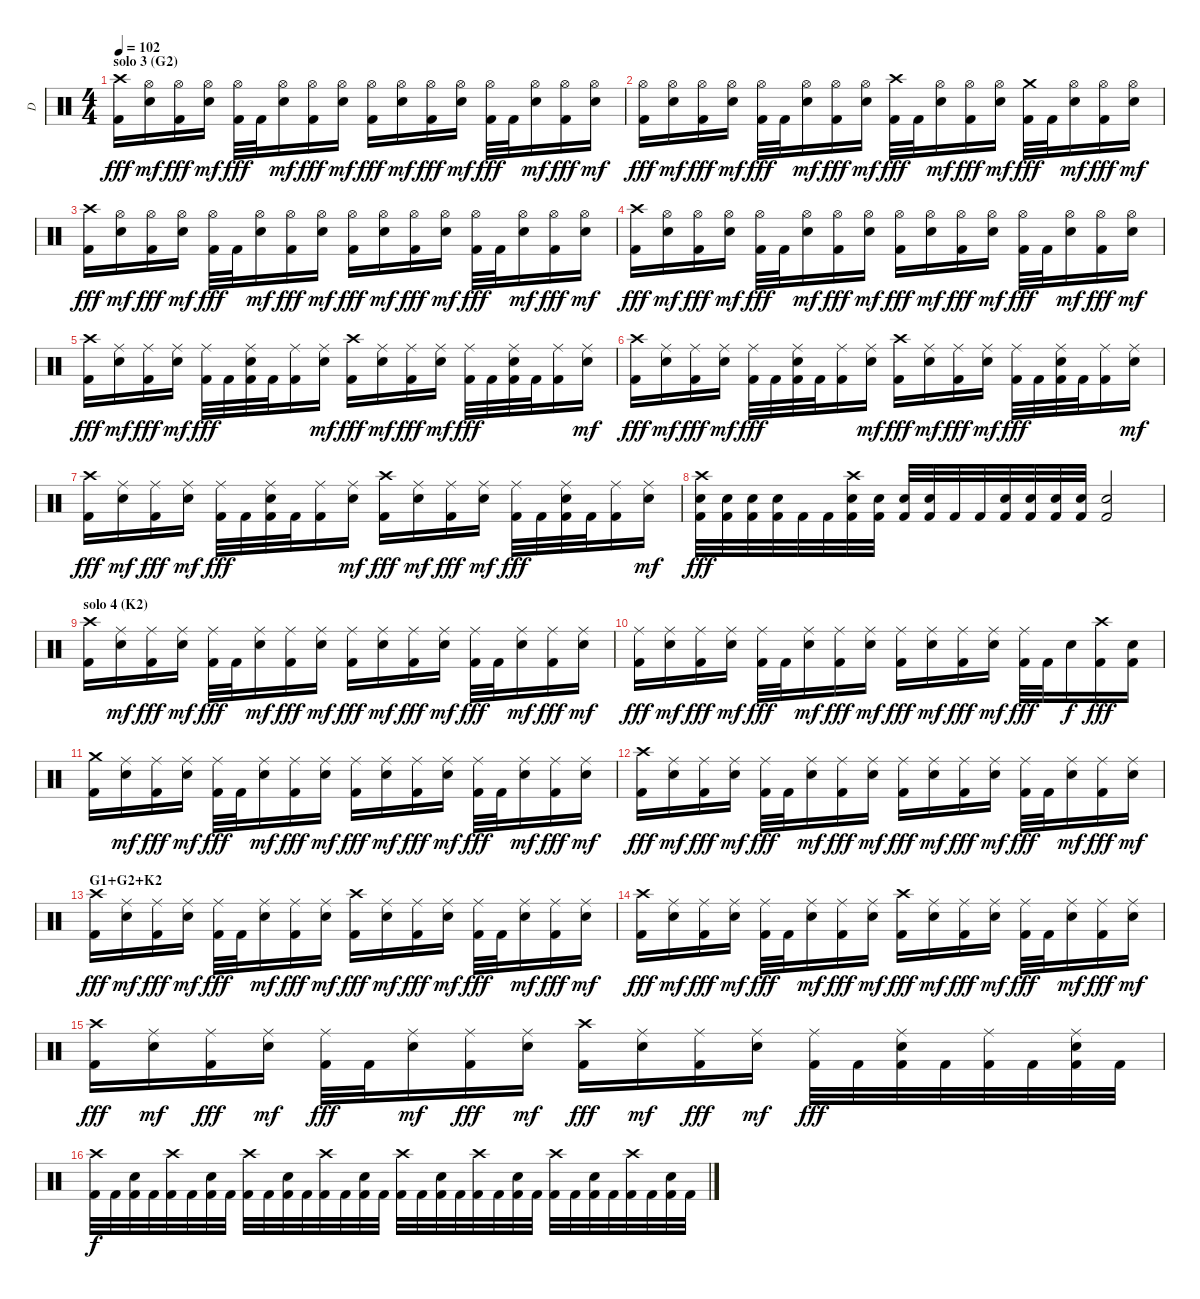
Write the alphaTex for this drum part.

\track ("D" "D") {instrument percussion}
\staff {score}
\articulation defaults
\ts (4 4)
\section ("" "solo 3 (G2)")
\tempo 102
\clef neutral
\ks c
("Crash high (hit)" "Kick (hit) 2").16{dy fff} ("Hi-Hat (open)" "Snare (hit) 2").16{dy mf} ("Hi-Hat (open)" "Kick (hit) 2").16{dy fff} ("Hi-Hat (open)" "Snare (hit) 2").16{dy mf} ("Hi-Hat (open)" "Kick (hit) 2").32{dy fff} "Kick (hit) 2".32 ("Hi-Hat (open)" "Snare (hit) 2").16{dy mf} ("Hi-Hat (open)" "Kick (hit) 2").16{dy fff} ("Hi-Hat (open)" "Snare (hit) 2").16{dy mf} ("Hi-Hat (open)" "Kick (hit) 2").16{dy fff} ("Hi-Hat (open)" "Snare (hit) 2").16{dy mf} ("Hi-Hat (open)" "Kick (hit) 2").16{dy fff} ("Hi-Hat (open)" "Snare (hit) 2").16{dy mf} ("Hi-Hat (open)" "Kick (hit) 2").32{dy fff} "Kick (hit) 2".32 ("Hi-Hat (open)" "Snare (hit) 2").16{dy mf} ("Hi-Hat (open)" "Kick (hit) 2").16{dy fff} ("Hi-Hat (open)" "Snare (hit) 2").16{dy mf} |
("Hi-Hat (open)" "Kick (hit) 2").16{dy fff} ("Hi-Hat (open)" "Snare (hit) 2").16{dy mf} ("Hi-Hat (open)" "Kick (hit) 2").16{dy fff} ("Hi-Hat (open)" "Snare (hit) 2").16{dy mf} ("Hi-Hat (open)" "Kick (hit) 2").32{dy fff} "Kick (hit) 2".32 ("Hi-Hat (open)" "Snare (hit) 2").16{dy mf} ("Hi-Hat (open)" "Kick (hit) 2").16{dy fff} ("Hi-Hat (open)" "Snare (hit) 2").16{dy mf} ("Crash high (hit)" "Kick (hit) 2").32{dy fff} "Kick (hit) 2".32 ("Hi-Hat (open)" "Snare (hit) 2").16{dy mf} ("Hi-Hat (open)" "Kick (hit) 2").16{dy fff} ("Hi-Hat (open)" "Snare (hit) 2").16{dy mf} ("Crash medium (hit)" "Kick (hit) 2").32{dy fff} "Kick (hit) 2".32 ("Hi-Hat (open)" "Snare (hit) 2").16{dy mf} ("Hi-Hat (open)" "Kick (hit) 2").16{dy fff} ("Hi-Hat (open)" "Snare (hit) 2").16{dy mf} |
("Crash high (hit)" "Kick (hit) 2").16{dy fff} ("Hi-Hat (open)" "Snare (hit) 2").16{dy mf} ("Hi-Hat (open)" "Kick (hit) 2").16{dy fff} ("Hi-Hat (open)" "Snare (hit) 2").16{dy mf} ("Hi-Hat (open)" "Kick (hit) 2").32{dy fff} "Kick (hit) 2".32 ("Hi-Hat (open)" "Snare (hit) 2").16{dy mf} ("Hi-Hat (open)" "Kick (hit) 2").16{dy fff} ("Hi-Hat (open)" "Snare (hit) 2").16{dy mf} ("Hi-Hat (open)" "Kick (hit) 2").16{dy fff} ("Hi-Hat (open)" "Snare (hit) 2").16{dy mf} ("Hi-Hat (open)" "Kick (hit) 2").16{dy fff} ("Hi-Hat (open)" "Snare (hit) 2").16{dy mf} ("Hi-Hat (open)" "Kick (hit) 2").32{dy fff} "Kick (hit) 2".32 ("Hi-Hat (open)" "Snare (hit) 2").16{dy mf} ("Hi-Hat (open)" "Kick (hit) 2").16{dy fff} ("Hi-Hat (open)" "Snare (hit) 2").16{dy mf} |
("Crash high (hit)" "Kick (hit) 2").16{dy fff} ("Hi-Hat (open)" "Snare (hit) 2").16{dy mf} ("Hi-Hat (open)" "Kick (hit) 2").16{dy fff} ("Hi-Hat (open)" "Snare (hit) 2").16{dy mf} ("Hi-Hat (open)" "Kick (hit) 2").32{dy fff} "Kick (hit) 2".32 ("Hi-Hat (open)" "Snare (hit) 2").16{dy mf} ("Hi-Hat (open)" "Kick (hit) 2").16{dy fff} ("Hi-Hat (open)" "Snare (hit) 2").16{dy mf} ("Hi-Hat (open)" "Kick (hit) 2").16{dy fff} ("Hi-Hat (open)" "Snare (hit) 2").16{dy mf} ("Hi-Hat (open)" "Kick (hit) 2").16{dy fff} ("Hi-Hat (open)" "Snare (hit) 2").16{dy mf} ("Hi-Hat (open)" "Kick (hit) 2").32{dy fff} "Kick (hit) 2".32 ("Hi-Hat (open)" "Snare (hit) 2").16{dy mf} ("Hi-Hat (open)" "Kick (hit) 2").16{dy fff} ("Hi-Hat (open)" "Snare (hit) 2").16{dy mf} |
("Crash high (hit)" "Kick (hit) 2").16{dy fff} ("Ride (middle)" "Snare (hit) 2").16{dy mf} ("Ride (middle)" "Kick (hit) 2").16{dy fff} ("Ride (middle)" "Snare (hit) 2").16{dy mf} ("Ride (middle)" "Kick (hit) 2").32{dy fff} "Kick (hit) 2".32 ("Ride (middle)" "Snare (hit) 2" "Kick (hit) 2").32 "Kick (hit) 2".32 ("Ride (middle)" "Kick (hit) 2").16 ("Ride (middle)" "Snare (hit) 2").16{dy mf} ("Crash high (hit)" "Kick (hit) 2").16{dy fff} ("Ride (middle)" "Snare (hit) 2").16{dy mf} ("Ride (middle)" "Kick (hit) 2").16{dy fff} ("Ride (middle)" "Snare (hit) 2").16{dy mf} ("Ride (middle)" "Kick (hit) 2").32{dy fff} "Kick (hit) 2".32 ("Ride (middle)" "Snare (hit) 2" "Kick (hit) 2").32 "Kick (hit) 2".32 ("Ride (middle)" "Kick (hit) 2").16 ("Ride (middle)" "Snare (hit) 2").16{dy mf} |
("Crash high (hit)" "Kick (hit) 2").16{dy fff} ("Ride (middle)" "Snare (hit) 2").16{dy mf} ("Ride (middle)" "Kick (hit) 2").16{dy fff} ("Ride (middle)" "Snare (hit) 2").16{dy mf} ("Ride (middle)" "Kick (hit) 2").32{dy fff} "Kick (hit) 2".32 ("Ride (middle)" "Snare (hit) 2" "Kick (hit) 2").32 "Kick (hit) 2".32 ("Ride (middle)" "Kick (hit) 2").16 ("Ride (middle)" "Snare (hit) 2").16{dy mf} ("Crash high (hit)" "Kick (hit) 2").16{dy fff} ("Ride (middle)" "Snare (hit) 2").16{dy mf} ("Ride (middle)" "Kick (hit) 2").16{dy fff} ("Ride (middle)" "Snare (hit) 2").16{dy mf} ("Ride (middle)" "Kick (hit) 2").32{dy fff} "Kick (hit) 2".32 ("Ride (middle)" "Snare (hit) 2" "Kick (hit) 2").32 "Kick (hit) 2".32 ("Ride (middle)" "Kick (hit) 2").16 ("Ride (middle)" "Snare (hit) 2").16{dy mf} |
("Crash high (hit)" "Kick (hit) 2").16{dy fff} ("Ride (middle)" "Snare (hit) 2").16{dy mf} ("Ride (middle)" "Kick (hit) 2").16{dy fff} ("Ride (middle)" "Snare (hit) 2").16{dy mf} ("Ride (middle)" "Kick (hit) 2").32{dy fff} "Kick (hit) 2".32 ("Ride (middle)" "Snare (hit) 2" "Kick (hit) 2").32 "Kick (hit) 2".32 ("Ride (middle)" "Kick (hit) 2").16 ("Ride (middle)" "Snare (hit) 2").16{dy mf} ("Crash high (hit)" "Kick (hit) 2").16{dy fff} ("Ride (middle)" "Snare (hit) 2").16{dy mf} ("Ride (middle)" "Kick (hit) 2").16{dy fff} ("Ride (middle)" "Snare (hit) 2").16{dy mf} ("Ride (middle)" "Kick (hit) 2").32{dy fff} "Kick (hit) 2".32 ("Ride (middle)" "Snare (hit) 2" "Kick (hit) 2").32 "Kick (hit) 2".32 ("Ride (middle)" "Kick (hit) 2").16 ("Ride (middle)" "Snare (hit) 2").16{dy mf} |
("Crash high (hit)" "Snare (hit) 2" "Kick (hit) 2").32{dy fff} ("Snare (hit) 2" "Kick (hit) 2").32 ("Snare (hit) 2" "Kick (hit) 2").32 ("Snare (hit) 2" "Kick (hit) 2").32 "Kick (hit) 2".32 "Kick (hit) 2".32 ("Crash high (hit)" "Snare (hit) 2" "Kick (hit) 2").32 ("Snare (hit) 2" "Kick (hit) 2").32 ("Snare (hit) 2" "Kick (hit) 2").32 ("Snare (hit) 2" "Kick (hit) 2").32 "Kick (hit) 2".32 "Kick (hit) 2".32 ("Snare (hit) 2" "Kick (hit) 2").32 ("Snare (hit) 2" "Kick (hit) 2").32 ("Snare (hit) 2" "Kick (hit) 2").32 ("Snare (hit) 2" "Kick (hit) 2").32 ("Snare (hit) 2" "Kick (hit) 2").2 |
\section ("" "solo 4 (K2)")
("Crash high (hit)" "Kick (hit) 2").16 ("Ride (middle)" "Snare (hit) 2").16{dy mf} ("Ride (middle)" "Kick (hit) 2").16{dy fff} ("Ride (middle)" "Snare (hit) 2").16{dy mf} ("Ride (middle)" "Kick (hit) 2").32{dy fff} "Kick (hit) 2".32 ("Ride (middle)" "Snare (hit) 2").16{dy mf} ("Ride (middle)" "Kick (hit) 2").16{dy fff} ("Ride (middle)" "Snare (hit) 2").16{dy mf} ("Ride (middle)" "Kick (hit) 2").16{dy fff} ("Ride (middle)" "Snare (hit) 2").16{dy mf} ("Ride (middle)" "Kick (hit) 2").16{dy fff} ("Ride (middle)" "Snare (hit) 2").16{dy mf} ("Ride (middle)" "Kick (hit) 2").32{dy fff} "Kick (hit) 2".32 ("Ride (middle)" "Snare (hit) 2").16{dy mf} ("Ride (middle)" "Kick (hit) 2").16{dy fff} ("Ride (middle)" "Snare (hit) 2").16{dy mf} |
("Ride (middle)" "Kick (hit) 2").16{dy fff} ("Ride (middle)" "Snare (hit) 2").16{dy mf} ("Ride (middle)" "Kick (hit) 2").16{dy fff} ("Ride (middle)" "Snare (hit) 2").16{dy mf} ("Ride (middle)" "Kick (hit) 2").32{dy fff} "Kick (hit) 2".32 ("Ride (middle)" "Snare (hit) 2").16{dy mf} ("Ride (middle)" "Kick (hit) 2").16{dy fff} ("Ride (middle)" "Snare (hit) 2").16{dy mf} ("Ride (middle)" "Kick (hit) 2").16{dy fff} ("Ride (middle)" "Snare (hit) 2").16{dy mf} ("Ride (middle)" "Kick (hit) 2").16{dy fff} ("Ride (middle)" "Snare (hit) 2").16{dy mf} ("Ride (middle)" "Kick (hit) 2").32{dy fff} "Kick (hit) 2".32 "Snare (hit) 2".16{dy f} ("Crash high (hit)" "Kick (hit) 2").16{dy fff} ("Snare (hit) 2" "Kick (hit) 2").16 |
("Crash medium (hit)" "Kick (hit) 2").16 ("Ride (middle)" "Snare (hit) 2").16{dy mf} ("Ride (middle)" "Kick (hit) 2").16{dy fff} ("Ride (middle)" "Snare (hit) 2").16{dy mf} ("Ride (middle)" "Kick (hit) 2").32{dy fff} "Kick (hit) 2".32 ("Ride (middle)" "Snare (hit) 2").16{dy mf} ("Ride (middle)" "Kick (hit) 2").16{dy fff} ("Ride (middle)" "Snare (hit) 2").16{dy mf} ("Ride (middle)" "Kick (hit) 2").16{dy fff} ("Ride (middle)" "Snare (hit) 2").16{dy mf} ("Ride (middle)" "Kick (hit) 2").16{dy fff} ("Ride (middle)" "Snare (hit) 2").16{dy mf} ("Ride (middle)" "Kick (hit) 2").32{dy fff} "Kick (hit) 2".32 ("Ride (middle)" "Snare (hit) 2").16{dy mf} ("Ride (middle)" "Kick (hit) 2").16{dy fff} ("Ride (middle)" "Snare (hit) 2").16{dy mf} |
("Crash high (hit)" "Kick (hit) 2").16{dy fff} ("Ride (middle)" "Snare (hit) 2").16{dy mf} ("Ride (middle)" "Kick (hit) 2").16{dy fff} ("Ride (middle)" "Snare (hit) 2").16{dy mf} ("Ride (middle)" "Kick (hit) 2").32{dy fff} "Kick (hit) 2".32 ("Ride (middle)" "Snare (hit) 2").16{dy mf} ("Ride (middle)" "Kick (hit) 2").16{dy fff} ("Ride (middle)" "Snare (hit) 2").16{dy mf} ("Ride (middle)" "Kick (hit) 2").16{dy fff} ("Ride (middle)" "Snare (hit) 2").16{dy mf} ("Ride (middle)" "Kick (hit) 2").16{dy fff} ("Ride (middle)" "Snare (hit) 2").16{dy mf} ("Ride (middle)" "Kick (hit) 2").32{dy fff} "Kick (hit) 2".32 ("Ride (middle)" "Snare (hit) 2").16{dy mf} ("Ride (middle)" "Kick (hit) 2").16{dy fff} ("Ride (middle)" "Snare (hit) 2").16{dy mf} |
\section ("" "G1+G2+K2")
("Crash high (hit)" "Kick (hit) 2").16{dy fff} ("Ride (middle)" "Snare (hit) 2").16{dy mf} ("Ride (middle)" "Kick (hit) 2").16{dy fff} ("Ride (middle)" "Snare (hit) 2").16{dy mf} ("Ride (middle)" "Kick (hit) 2").32{dy fff} "Kick (hit) 2".32 ("Ride (middle)" "Snare (hit) 2").16{dy mf} ("Ride (middle)" "Kick (hit) 2").16{dy fff} ("Ride (middle)" "Snare (hit) 2").16{dy mf} ("Crash high (hit)" "Kick (hit) 2").16{dy fff} ("Ride (middle)" "Snare (hit) 2").16{dy mf} ("Ride (middle)" "Kick (hit) 2").16{dy fff} ("Ride (middle)" "Snare (hit) 2").16{dy mf} ("Ride (middle)" "Kick (hit) 2").32{dy fff} "Kick (hit) 2".32 ("Ride (middle)" "Snare (hit) 2").16{dy mf} ("Ride (middle)" "Kick (hit) 2").16{dy fff} ("Ride (middle)" "Snare (hit) 2").16{dy mf} |
("Crash high (hit)" "Kick (hit) 2").16{dy fff} ("Ride (middle)" "Snare (hit) 2").16{dy mf} ("Ride (middle)" "Kick (hit) 2").16{dy fff} ("Ride (middle)" "Snare (hit) 2").16{dy mf} ("Ride (middle)" "Kick (hit) 2").32{dy fff} "Kick (hit) 2".32 ("Ride (middle)" "Snare (hit) 2").16{dy mf} ("Ride (middle)" "Kick (hit) 2").16{dy fff} ("Ride (middle)" "Snare (hit) 2").16{dy mf} ("Crash high (hit)" "Kick (hit) 2").16{dy fff} ("Ride (middle)" "Snare (hit) 2").16{dy mf} ("Ride (middle)" "Kick (hit) 2").16{dy fff} ("Ride (middle)" "Snare (hit) 2").16{dy mf} ("Ride (middle)" "Kick (hit) 2").32{dy fff} "Kick (hit) 2".32 ("Ride (middle)" "Snare (hit) 2").16{dy mf} ("Ride (middle)" "Kick (hit) 2").16{dy fff} ("Ride (middle)" "Snare (hit) 2").16{dy mf} |
("Crash high (hit)" "Kick (hit) 2").16{dy fff} ("Ride (middle)" "Snare (hit) 2").16{dy mf} ("Ride (middle)" "Kick (hit) 2").16{dy fff} ("Ride (middle)" "Snare (hit) 2").16{dy mf} ("Ride (middle)" "Kick (hit) 2").32{dy fff} "Kick (hit) 2".32 ("Ride (middle)" "Snare (hit) 2").16{dy mf} ("Ride (middle)" "Kick (hit) 2").16{dy fff} ("Ride (middle)" "Snare (hit) 2").16{dy mf} ("Crash high (hit)" "Kick (hit) 2").16{dy fff} ("Ride (middle)" "Snare (hit) 2").16{dy mf} ("Ride (middle)" "Kick (hit) 2").16{dy fff} ("Ride (middle)" "Snare (hit) 2").16{dy mf} ("Ride (middle)" "Kick (hit) 2").32{dy fff} "Kick (hit) 2".32 ("Ride (middle)" "Snare (hit) 2" "Kick (hit) 2").32 "Kick (hit) 2".32 ("Ride (middle)" "Kick (hit) 2").32 "Kick (hit) 2".32 ("Ride (middle)" "Snare (hit) 2" "Kick (hit) 2").32 "Kick (hit) 2".32 |
("Crash high (hit)" "Kick (hit) 2").32{dy f} "Kick (hit) 2".32 ("Snare (hit) 2" "Kick (hit) 2").32 "Kick (hit) 2".32 ("Crash high (hit)" "Kick (hit) 2").32 "Kick (hit) 2".32 ("Snare (hit) 2" "Kick (hit) 2").32 "Kick (hit) 2".32 ("Crash high (hit)" "Kick (hit) 2").32 "Kick (hit) 2".32 ("Snare (hit) 2" "Kick (hit) 2").32 "Kick (hit) 2".32 ("Crash high (hit)" "Kick (hit) 2").32 "Kick (hit) 2".32 ("Snare (hit) 2" "Kick (hit) 2").32 "Kick (hit) 2".32 ("Crash high (hit)" "Kick (hit) 2").32 "Kick (hit) 2".32 ("Snare (hit) 2" "Kick (hit) 2").32 "Kick (hit) 2".32 ("Crash high (hit)" "Kick (hit) 2").32 "Kick (hit) 2".32 ("Snare (hit) 2" "Kick (hit) 2").32 "Kick (hit) 2".32 ("Crash high (hit)" "Kick (hit) 2").32 "Kick (hit) 2".32 ("Snare (hit) 2" "Kick (hit) 2").32 "Kick (hit) 2".32 ("Crash high (hit)" "Kick (hit) 2").32 "Kick (hit) 2".32 ("Snare (hit) 2" "Kick (hit) 2").32 "Kick (hit) 2".32
